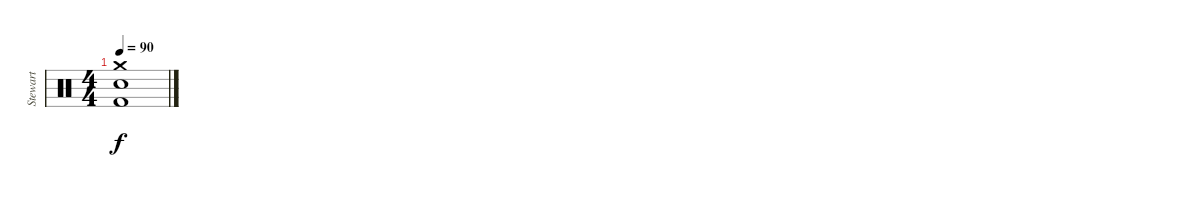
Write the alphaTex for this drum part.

\track ("Stewart" "Stewart") {instrument percussion}
\staff {score}
\articulation defaults
\ts (4 4)
\tempo 90
\clef neutral
\ks c
("Crash medium (hit)" "Electric Snare (hit)" "Kick (hit) 2").1{dy f}
